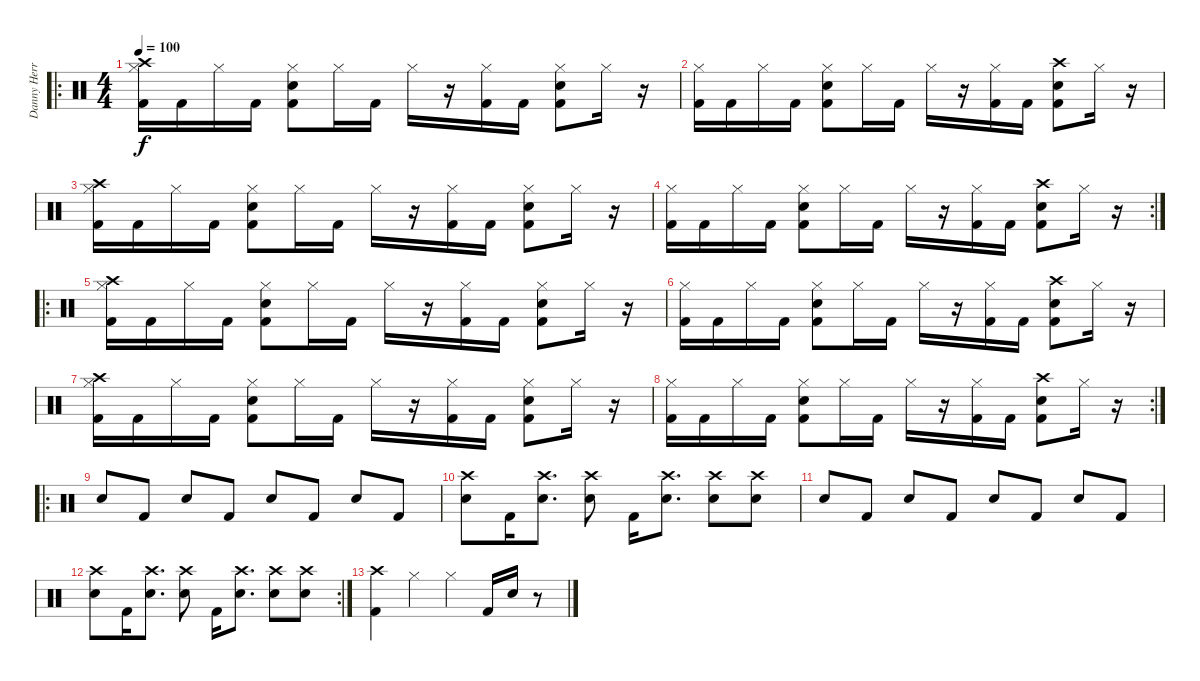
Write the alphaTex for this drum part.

\track ("Danny Herrera" "Danny Herr") {instrument percussion}
\staff {score}
\articulation defaults
\ro
\ts (4 4)
\tempo 100
\clef neutral
\ks c
("Crash high (hit)" "Hi-Hat (closed)" "Kick (hit) 2").16{dy f} "Kick (hit) 2".16 "Hi-Hat (closed)".16 "Kick (hit) 2".16 ("Hi-Hat (closed)" "Snare (hit) 2" "Kick (hit) 2").8 "Hi-Hat (closed)".16 "Kick (hit) 2".16 "Hi-Hat (closed)".16 r.16 ("Hi-Hat (closed)" "Kick (hit) 2").16 "Kick (hit) 2".16 ("Hi-Hat (closed)" "Snare (hit) 2" "Kick (hit) 2").8 "Hi-Hat (closed)".16 r.16 |
("Hi-Hat (closed)" "Kick (hit) 2").16 "Kick (hit) 2".16 "Hi-Hat (closed)".16 "Kick (hit) 2".16 ("Hi-Hat (closed)" "Snare (hit) 2" "Kick (hit) 2").8 "Hi-Hat (closed)".16 "Kick (hit) 2".16 "Hi-Hat (closed)".16 r.16 ("Hi-Hat (closed)" "Kick (hit) 2").16 "Kick (hit) 2".16 ("Crash high (hit)" "Snare (hit) 2" "Kick (hit) 2").8 "Hi-Hat (closed)".16 r.16 |
("Crash high (hit)" "Hi-Hat (closed)" "Kick (hit) 2").16 "Kick (hit) 2".16 "Hi-Hat (closed)".16 "Kick (hit) 2".16 ("Hi-Hat (closed)" "Snare (hit) 2" "Kick (hit) 2").8 "Hi-Hat (closed)".16 "Kick (hit) 2".16 "Hi-Hat (closed)".16 r.16 ("Hi-Hat (closed)" "Kick (hit) 2").16 "Kick (hit) 2".16 ("Hi-Hat (closed)" "Snare (hit) 2" "Kick (hit) 2").8 "Hi-Hat (closed)".16 r.16 |
\rc 2
("Hi-Hat (closed)" "Kick (hit) 2").16 "Kick (hit) 2".16 "Hi-Hat (closed)".16 "Kick (hit) 2".16 ("Hi-Hat (closed)" "Snare (hit) 2" "Kick (hit) 2").8 "Hi-Hat (closed)".16 "Kick (hit) 2".16 "Hi-Hat (closed)".16 r.16 ("Hi-Hat (closed)" "Kick (hit) 2").16 "Kick (hit) 2".16 ("Crash high (hit)" "Snare (hit) 2" "Kick (hit) 2").8 "Hi-Hat (closed)".16 r.16 |
\ro
("Crash high (hit)" "Hi-Hat (closed)" "Kick (hit) 2").16 "Kick (hit) 2".16 "Hi-Hat (closed)".16 "Kick (hit) 2".16 ("Hi-Hat (closed)" "Snare (hit) 2" "Kick (hit) 2").8 "Hi-Hat (closed)".16 "Kick (hit) 2".16 "Hi-Hat (closed)".16 r.16 ("Hi-Hat (closed)" "Kick (hit) 2").16 "Kick (hit) 2".16 ("Hi-Hat (closed)" "Snare (hit) 2" "Kick (hit) 2").8 "Hi-Hat (closed)".16 r.16 |
("Hi-Hat (closed)" "Kick (hit) 2").16 "Kick (hit) 2".16 "Hi-Hat (closed)".16 "Kick (hit) 2".16 ("Hi-Hat (closed)" "Snare (hit) 2" "Kick (hit) 2").8 "Hi-Hat (closed)".16 "Kick (hit) 2".16 "Hi-Hat (closed)".16 r.16 ("Hi-Hat (closed)" "Kick (hit) 2").16 "Kick (hit) 2".16 ("Crash high (hit)" "Snare (hit) 2" "Kick (hit) 2").8 "Hi-Hat (closed)".16 r.16 |
("Crash high (hit)" "Hi-Hat (closed)" "Kick (hit) 2").16 "Kick (hit) 2".16 "Hi-Hat (closed)".16 "Kick (hit) 2".16 ("Hi-Hat (closed)" "Snare (hit) 2" "Kick (hit) 2").8 "Hi-Hat (closed)".16 "Kick (hit) 2".16 "Hi-Hat (closed)".16 r.16 ("Hi-Hat (closed)" "Kick (hit) 2").16 "Kick (hit) 2".16 ("Hi-Hat (closed)" "Snare (hit) 2" "Kick (hit) 2").8 "Hi-Hat (closed)".16 r.16 |
\rc 2
("Hi-Hat (closed)" "Kick (hit) 2").16 "Kick (hit) 2".16 "Hi-Hat (closed)".16 "Kick (hit) 2".16 ("Hi-Hat (closed)" "Snare (hit) 2" "Kick (hit) 2").8 "Hi-Hat (closed)".16 "Kick (hit) 2".16 "Hi-Hat (closed)".16 r.16 ("Hi-Hat (closed)" "Kick (hit) 2").16 "Kick (hit) 2".16 ("Crash high (hit)" "Snare (hit) 2" "Kick (hit) 2").8 "Hi-Hat (closed)".16 r.16 |
\ro "Snare (hit) 2".8 "Kick (hit) 2".8 "Snare (hit) 2".8 "Kick (hit) 2".8 "Snare (hit) 2".8 "Kick (hit) 2".8 "Snare (hit) 2".8 "Kick (hit) 2".8
|
("Crash high (hit)" "Snare (hit) 2").8 "Kick (hit) 2".16 ("Crash high (hit)" "Snare (hit) 2").8{d} ("Crash high (hit)" "Snare (hit) 2").8 "Kick (hit) 2".16 ("Crash high (hit)" "Snare (hit) 2").8{d} ("Crash high (hit)" "Snare (hit) 2").8 ("Crash high (hit)" "Snare (hit) 2").8 |
"Snare (hit) 2".8 "Kick (hit) 2".8 "Snare (hit) 2".8 "Kick (hit) 2".8 "Snare (hit) 2".8 "Kick (hit) 2".8 "Snare (hit) 2".8 "Kick (hit) 2".8 |
\rc 2
("Crash high (hit)" "Snare (hit) 2").8 "Kick (hit) 2".16 ("Crash high (hit)" "Snare (hit) 2").8{d} ("Crash high (hit)" "Snare (hit) 2").8 "Kick (hit) 2".16 ("Crash high (hit)" "Snare (hit) 2").8{d} ("Crash high (hit)" "Snare (hit) 2").8 ("Crash high (hit)" "Snare (hit) 2").8 |
("Crash high (hit)" "Kick (hit) 2").4 "Hi-Hat (closed)".4 "Hi-Hat (closed)".4 "Kick (hit) 2".16 "Snare (hit) 2".16 r.8
